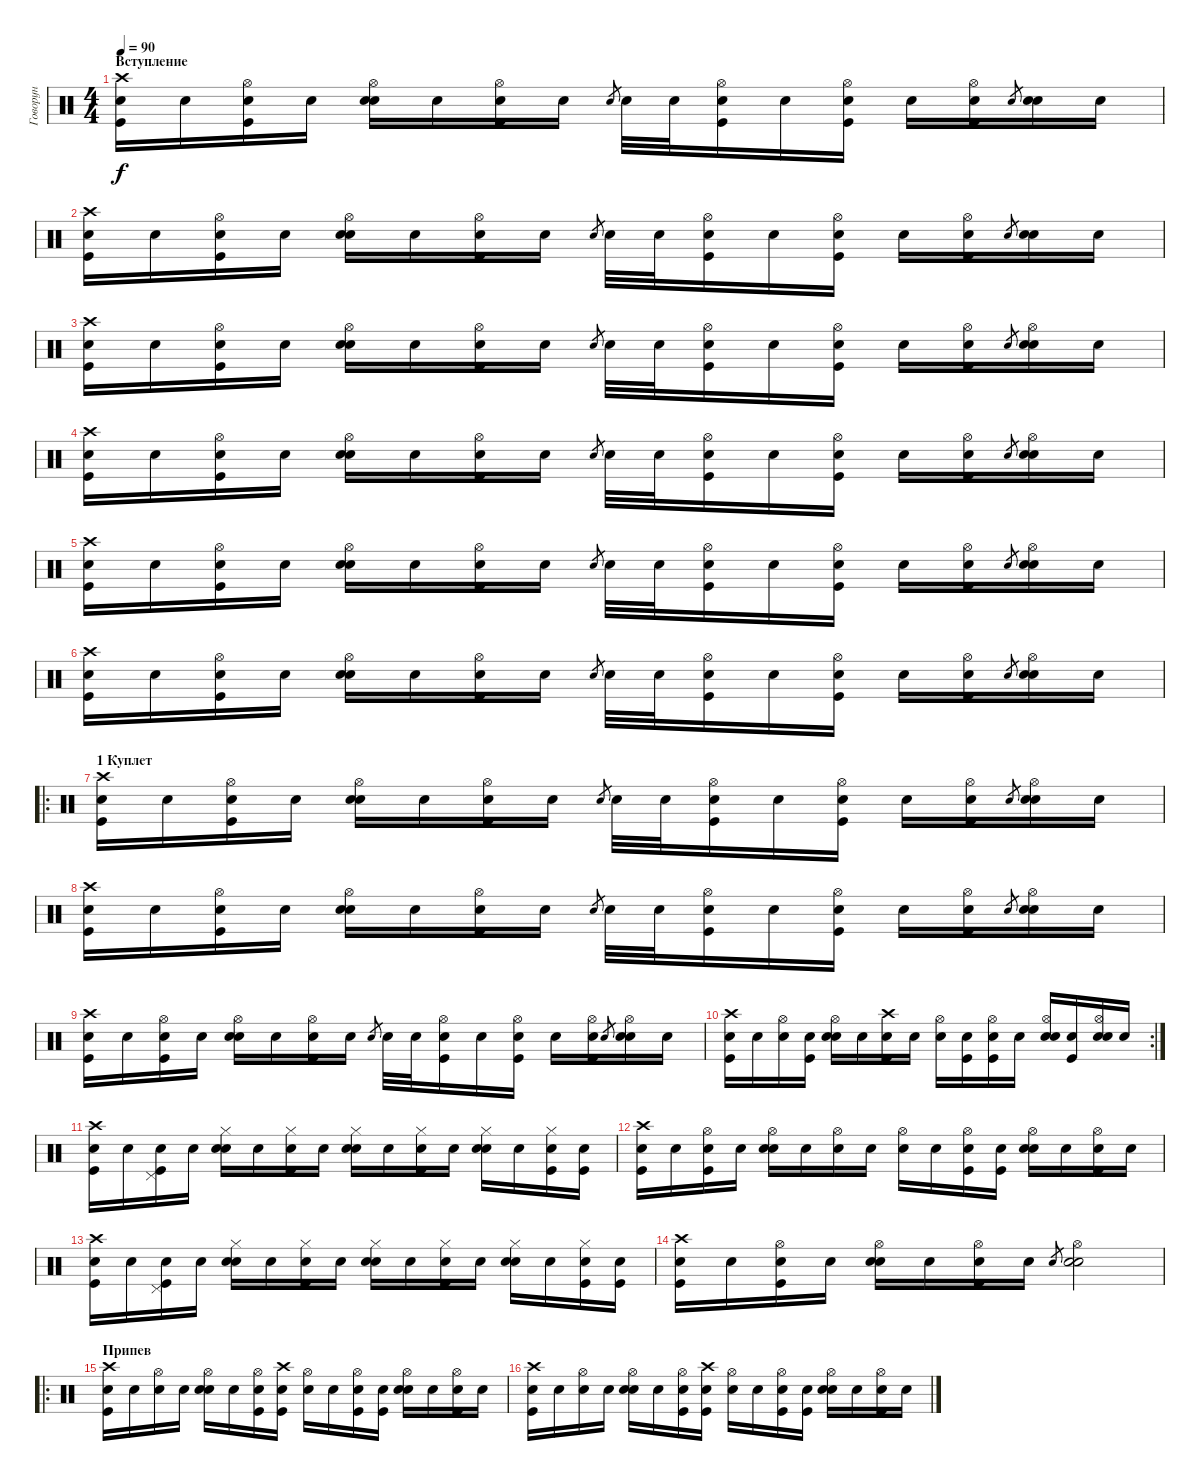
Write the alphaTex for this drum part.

\track ("Говорун" "Говорун") {instrument percussion}
\staff {score}
\articulation defaults
\ts (4 4)
\section ("" "Вступление")
\tempo 90
\clef neutral
\ks c
("Snare (hit)"{x} "Kick (hit)" "Crash high (hit)").16{dy f} "Snare (hit)"{x}.16 ("Snare (hit)"{x} "Kick (hit)" "Hi-Hat (open)").16 "Snare (hit)"{x}.16 ("Snare (hit)"{x} "Electric Snare (hit)" "Hi-Hat (open)").16 "Snare (hit)"{x}.16 ("Snare (hit)"{x} "Kick (hit)" "Hi-Hat (open)").16 "Snare (hit)"{x}.16 "Electric Snare (hit)".8{gr} "Electric Snare (hit)".32 "Electric Snare (hit)".32 ("Snare (hit)"{x} "Kick (hit)" "Hi-Hat (open)").16 "Snare (hit)"{x}.16 ("Snare (hit)"{x} "Kick (hit)" "Hi-Hat (open)").16 "Snare (hit)"{x}.16 ("Snare (hit)"{x} "Kick (hit)" "Hi-Hat (open)").16 "Electric Snare (hit)".8{gr} ("Snare (hit)"{x} "Electric Snare (hit)").16 "Snare (hit)"{x}.16 |
("Snare (hit)"{x} "Kick (hit)" "Crash high (hit)").16 "Snare (hit)"{x}.16 ("Snare (hit)"{x} "Kick (hit)" "Hi-Hat (open)").16 "Snare (hit)"{x}.16 ("Snare (hit)"{x} "Electric Snare (hit)" "Hi-Hat (open)").16 "Snare (hit)"{x}.16 ("Snare (hit)"{x} "Kick (hit)" "Hi-Hat (open)").16 "Snare (hit)"{x}.16 "Electric Snare (hit)".8{gr} "Electric Snare (hit)".32 "Electric Snare (hit)".32 ("Snare (hit)"{x} "Kick (hit)" "Hi-Hat (open)").16 "Snare (hit)"{x}.16 ("Snare (hit)"{x} "Kick (hit)" "Hi-Hat (open)").16 "Snare (hit)"{x}.16 ("Snare (hit)"{x} "Kick (hit)" "Hi-Hat (open)").16 "Electric Snare (hit)".8{gr} ("Snare (hit)"{x} "Electric Snare (hit)").16 "Snare (hit)"{x}.16 |
("Snare (hit)"{x} "Kick (hit)" "Crash high (hit)").16 "Snare (hit)"{x}.16 ("Snare (hit)"{x} "Kick (hit)" "Hi-Hat (open)").16 "Snare (hit)"{x}.16 ("Snare (hit)"{x} "Electric Snare (hit)" "Hi-Hat (open)").16 "Snare (hit)"{x}.16 ("Snare (hit)"{x} "Kick (hit)" "Hi-Hat (open)").16 "Snare (hit)"{x}.16 "Electric Snare (hit)".8{gr} "Electric Snare (hit)".32 "Electric Snare (hit)".32 ("Snare (hit)"{x} "Kick (hit)" "Hi-Hat (open)").16 "Snare (hit)"{x}.16 ("Snare (hit)"{x} "Kick (hit)" "Hi-Hat (open)").16 "Snare (hit)"{x}.16 ("Snare (hit)"{x} "Kick (hit)" "Hi-Hat (open)").16 "Electric Snare (hit)".8{gr} ("Snare (hit)"{x} "Electric Snare (hit)" "Hi-Hat (open)").16 "Snare (hit)"{x}.16 |
("Snare (hit)"{x} "Kick (hit)" "Crash high (hit)").16 "Snare (hit)"{x}.16 ("Snare (hit)"{x} "Kick (hit)" "Hi-Hat (open)").16 "Snare (hit)"{x}.16 ("Snare (hit)"{x} "Electric Snare (hit)" "Hi-Hat (open)").16 "Snare (hit)"{x}.16 ("Snare (hit)"{x} "Kick (hit)" "Hi-Hat (open)").16 "Snare (hit)"{x}.16 "Electric Snare (hit)".8{gr} "Electric Snare (hit)".32 "Electric Snare (hit)".32 ("Snare (hit)"{x} "Kick (hit)" "Hi-Hat (open)").16 "Snare (hit)"{x}.16 ("Snare (hit)"{x} "Kick (hit)" "Hi-Hat (open)").16 "Snare (hit)"{x}.16 ("Snare (hit)"{x} "Kick (hit)" "Hi-Hat (open)").16 "Electric Snare (hit)".8{gr} ("Snare (hit)"{x} "Electric Snare (hit)" "Hi-Hat (open)").16 "Snare (hit)"{x}.16 |
("Snare (hit)"{x} "Kick (hit)" "Crash high (hit)").16 "Snare (hit)"{x}.16 ("Snare (hit)"{x} "Kick (hit)" "Hi-Hat (open)").16 "Snare (hit)"{x}.16 ("Snare (hit)"{x} "Electric Snare (hit)" "Hi-Hat (open)").16 "Snare (hit)"{x}.16 ("Snare (hit)"{x} "Kick (hit)" "Hi-Hat (open)").16 "Snare (hit)"{x}.16 "Electric Snare (hit)".8{gr} "Electric Snare (hit)".32 "Electric Snare (hit)".32 ("Snare (hit)"{x} "Kick (hit)" "Hi-Hat (open)").16 "Snare (hit)"{x}.16 ("Snare (hit)"{x} "Kick (hit)" "Hi-Hat (open)").16 "Snare (hit)"{x}.16 ("Snare (hit)"{x} "Kick (hit)" "Hi-Hat (open)").16 "Electric Snare (hit)".8{gr} ("Snare (hit)"{x} "Electric Snare (hit)" "Hi-Hat (open)").16 "Snare (hit)"{x}.16 |
("Snare (hit)"{x} "Kick (hit)" "Crash high (hit)").16 "Snare (hit)"{x}.16 ("Snare (hit)"{x} "Kick (hit)" "Hi-Hat (open)").16 "Snare (hit)"{x}.16 ("Snare (hit)"{x} "Electric Snare (hit)" "Hi-Hat (open)").16 "Snare (hit)"{x}.16 ("Snare (hit)"{x} "Kick (hit)" "Hi-Hat (open)").16 "Snare (hit)"{x}.16 "Electric Snare (hit)".8{gr} "Electric Snare (hit)".32 "Electric Snare (hit)".32 ("Snare (hit)"{x} "Kick (hit)" "Hi-Hat (open)").16 "Snare (hit)"{x}.16 ("Snare (hit)"{x} "Kick (hit)" "Hi-Hat (open)").16 "Snare (hit)"{x}.16 ("Snare (hit)"{x} "Kick (hit)" "Hi-Hat (open)").16 "Electric Snare (hit)".8{gr} ("Snare (hit)"{x} "Electric Snare (hit)" "Hi-Hat (open)").16 "Snare (hit)"{x}.16 |
\ro
\section ("" "1 Куплет")
("Snare (hit)"{x} "Kick (hit)" "Crash high (hit)").16 "Snare (hit)"{x}.16 ("Snare (hit)"{x} "Kick (hit)" "Hi-Hat (open)").16 "Snare (hit)"{x}.16 ("Snare (hit)"{x} "Electric Snare (hit)" "Hi-Hat (open)").16 "Snare (hit)"{x}.16 ("Snare (hit)"{x} "Kick (hit)" "Hi-Hat (open)").16 "Snare (hit)"{x}.16 "Electric Snare (hit)".8{gr} "Electric Snare (hit)".32 "Electric Snare (hit)".32 ("Snare (hit)"{x} "Kick (hit)" "Hi-Hat (open)").16 "Snare (hit)"{x}.16 ("Snare (hit)"{x} "Kick (hit)" "Hi-Hat (open)").16 "Snare (hit)"{x}.16 ("Snare (hit)"{x} "Kick (hit)" "Hi-Hat (open)").16 "Electric Snare (hit)".8{gr} ("Snare (hit)"{x} "Electric Snare (hit)" "Hi-Hat (open)").16 "Snare (hit)"{x}.16 |
("Snare (hit)"{x} "Kick (hit)" "Crash high (hit)").16 "Snare (hit)"{x}.16 ("Snare (hit)"{x} "Kick (hit)" "Hi-Hat (open)").16 "Snare (hit)"{x}.16 ("Snare (hit)"{x} "Electric Snare (hit)" "Hi-Hat (open)").16 "Snare (hit)"{x}.16 ("Snare (hit)"{x} "Kick (hit)" "Hi-Hat (open)").16 "Snare (hit)"{x}.16 "Electric Snare (hit)".8{gr} "Electric Snare (hit)".32 "Electric Snare (hit)".32 ("Snare (hit)"{x} "Kick (hit)" "Hi-Hat (open)").16 "Snare (hit)"{x}.16 ("Snare (hit)"{x} "Kick (hit)" "Hi-Hat (open)").16 "Snare (hit)"{x}.16 ("Snare (hit)"{x} "Kick (hit)" "Hi-Hat (open)").16 "Electric Snare (hit)".8{gr} ("Snare (hit)"{x} "Electric Snare (hit)" "Hi-Hat (open)").16 "Snare (hit)"{x}.16 |
("Snare (hit)"{x} "Kick (hit)" "Crash high (hit)").16 "Snare (hit)"{x}.16 ("Snare (hit)"{x} "Kick (hit)" "Hi-Hat (open)").16 "Snare (hit)"{x}.16 ("Snare (hit)"{x} "Electric Snare (hit)" "Hi-Hat (open)").16 "Snare (hit)"{x}.16 ("Snare (hit)"{x} "Kick (hit)" "Hi-Hat (open)").16 "Snare (hit)"{x}.16 "Electric Snare (hit)".8{gr} "Electric Snare (hit)".32 "Electric Snare (hit)".32 ("Snare (hit)"{x} "Kick (hit)" "Hi-Hat (open)").16 "Snare (hit)"{x}.16 ("Snare (hit)"{x} "Kick (hit)" "Hi-Hat (open)").16 "Snare (hit)"{x}.16 ("Snare (hit)"{x} "Kick (hit)" "Hi-Hat (open)").16 "Electric Snare (hit)".8{gr} ("Snare (hit)"{x} "Electric Snare (hit)" "Hi-Hat (open)").16 "Snare (hit)"{x}.16 |
\rc 2
("Snare (hit)"{x} "Kick (hit)" "Crash high (hit)").16 "Snare (hit)"{x}.16 ("Snare (hit)"{x} "Hi-Hat (open)").16 ("Snare (hit)"{x} "Kick (hit)").16 ("Snare (hit)"{x} "Electric Snare (hit)" "Hi-Hat (open)").16 "Snare (hit)"{x}.16 ("Snare (hit)"{x} "Kick (hit)" "Crash high (hit)").16 "Snare (hit)"{x}.16 ("Snare (hit)"{x} "Hi-Hat (open)").16 ("Snare (hit)"{x} "Kick (hit)").16 ("Snare (hit)"{x} "Kick (hit)" "Hi-Hat (open)").16 "Snare (hit)"{x}.16 ("Snare (hit)"{x} "Electric Snare (hit)" "Hi-Hat (open)").16 ("Snare (hit)"{x} "Kick (hit)").16 ("Snare (hit)"{x} "Electric Snare (hit)" "Hi-Hat (open)").16 "Snare (hit)"{x}.16 |
\section ("" "")
("Snare (hit)"{x} "Kick (hit)" "Crash high (hit)").16 "Snare (hit)"{x}.16 ("Snare (hit)"{x} "Kick (hit)" "Pedal Hi-Hat (hit)").16 "Snare (hit)"{x}.16 ("Snare (hit)"{x} "Snare (hit) 2" "Hi-Hat (closed)").16 "Snare (hit)"{x}.16 ("Snare (hit)"{x} "Kick (hit)" "Hi-Hat (closed)").16 "Snare (hit)"{x}.16 ("Snare (hit)"{x} "Snare (hit) 2" "Hi-Hat (closed)").16 "Snare (hit)"{x}.16 ("Snare (hit)"{x} "Kick (hit)" "Hi-Hat (closed)").16 "Snare (hit)"{x}.16 ("Snare (hit)"{x} "Snare (hit) 2" "Hi-Hat (closed)").16 "Snare (hit)"{x}.16 ("Snare (hit)"{x} "Kick (hit)" "Hi-Hat (closed)").16 ("Snare (hit)"{x} "Kick (hit)").16 |
("Snare (hit)"{x} "Kick (hit)" "Crash high (hit)").16 "Snare (hit)"{x}.16 ("Snare (hit)"{x} "Kick (hit)" "Hi-Hat (open)").16 "Snare (hit)"{x}.16 ("Snare (hit)"{x} "Snare (hit) 2" "Hi-Hat (open)").16 "Snare (hit)"{x}.16 ("Snare (hit)"{x} "Hi-Hat (open)").16 "Snare (hit)"{x}.16 ("Snare (hit)"{x} "Hi-Hat (open)").16 "Snare (hit)"{x}.16 ("Snare (hit)"{x} "Kick (hit)" "Hi-Hat (open)").16 ("Snare (hit)"{x} "Kick (hit)").16 ("Snare (hit)"{x} "Snare (hit) 2" "Hi-Hat (open)").16 "Snare (hit)"{x}.16 ("Snare (hit)"{x} "Kick (hit)" "Hi-Hat (open)").16 "Snare (hit)"{x}.16 |
("Snare (hit)"{x} "Kick (hit)" "Crash high (hit)").16 "Snare (hit)"{x}.16 ("Snare (hit)"{x} "Kick (hit)" "Pedal Hi-Hat (hit)").16 "Snare (hit)"{x}.16 ("Snare (hit)"{x} "Snare (hit) 2" "Hi-Hat (closed)").16 "Snare (hit)"{x}.16 ("Snare (hit)"{x} "Kick (hit)" "Hi-Hat (closed)").16 "Snare (hit)"{x}.16 ("Snare (hit)"{x} "Snare (hit) 2" "Hi-Hat (closed)").16 "Snare (hit)"{x}.16 ("Snare (hit)"{x} "Kick (hit)" "Hi-Hat (closed)").16 "Snare (hit)"{x}.16 ("Snare (hit)"{x} "Snare (hit) 2" "Hi-Hat (closed)").16 "Snare (hit)"{x}.16 ("Snare (hit)"{x} "Kick (hit)" "Hi-Hat (closed)").16 ("Snare (hit)"{x} "Kick (hit)").16 |
("Snare (hit)"{x} "Kick (hit)" "Crash high (hit)").16 "Snare (hit)"{x}.16 ("Snare (hit)"{x} "Kick (hit)" "Hi-Hat (open)").16 "Snare (hit)"{x}.16 ("Snare (hit)"{x} "Snare (hit) 2" "Hi-Hat (open)").16 "Snare (hit)"{x}.16 ("Snare (hit)"{x} "Kick (hit)" "Hi-Hat (open)").16 "Snare (hit)"{x}.16 "Snare (hit) 2".8{gr} ("Snare (hit)"{x} "Snare (hit) 2" "Hi-Hat (open)").2 |
\ro
\section ("" "Припев")
("Snare (hit)"{x} "Kick (hit)" "Crash high (hit)").16 "Snare (hit)"{x}.16 ("Snare (hit)"{x} "Hi-Hat (open)").16 "Snare (hit)"{x}.16 ("Snare (hit)"{x} "Snare (hit) 2" "Hi-Hat (open)").16 "Snare (hit)"{x}.16 ("Snare (hit)"{x} "Kick (hit)" "Hi-Hat (open)").16 ("Snare (hit)"{x} "Kick (hit)" "Crash high (hit)").16 ("Snare (hit)"{x} "Hi-Hat (open)").16 "Snare (hit)"{x}.16 ("Snare (hit)"{x} "Kick (hit)" "Hi-Hat (open)").16 ("Snare (hit)"{x} "Kick (hit)").16 ("Snare (hit)"{x} "Snare (hit) 2" "Hi-Hat (open)").16 "Snare (hit)"{x}.16 ("Snare (hit)"{x} "Kick (hit)" "Hi-Hat (open)").16 "Snare (hit)"{x}.16 |
("Snare (hit)"{x} "Kick (hit)" "Crash high (hit)").16 "Snare (hit)"{x}.16 ("Snare (hit)"{x} "Hi-Hat (open)").16 "Snare (hit)"{x}.16 ("Snare (hit)"{x} "Snare (hit) 2" "Hi-Hat (open)").16 "Snare (hit)"{x}.16 ("Snare (hit)"{x} "Kick (hit)" "Hi-Hat (open)").16 ("Snare (hit)"{x} "Kick (hit)" "Crash high (hit)").16 ("Snare (hit)"{x} "Hi-Hat (open)").16 "Snare (hit)"{x}.16 ("Snare (hit)"{x} "Kick (hit)" "Hi-Hat (open)").16 ("Snare (hit)"{x} "Kick (hit)").16 ("Snare (hit)"{x} "Snare (hit) 2" "Hi-Hat (open)").16 "Snare (hit)"{x}.16 ("Snare (hit)"{x} "Kick (hit)" "Hi-Hat (open)").16 "Snare (hit)"{x}.16
